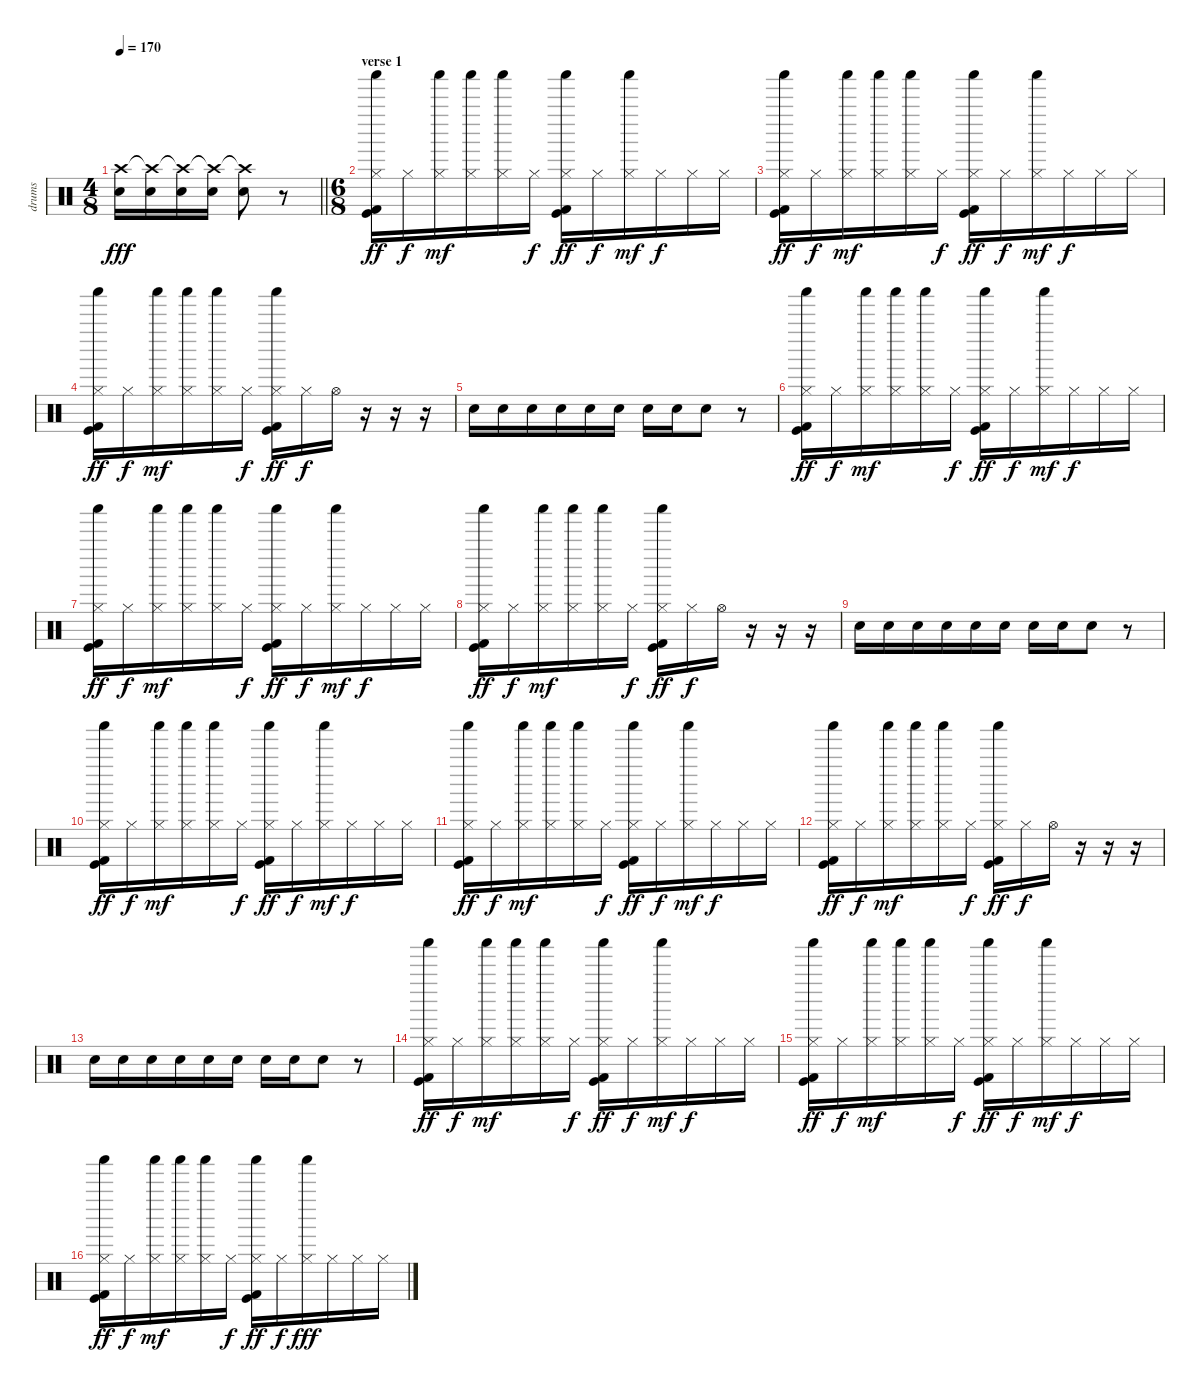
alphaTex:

\track ("drums " "drums ") {instrument percussion}
\staff {score}
\articulation defaults
\ts (4 8)
\tempo 170
\clef neutral
\barLineRight lightlight
\ks c
("Crash high (hit)" "Electric Snare (hit)").16{dy fff} ("Crash high (hit)"{t} "Electric Snare (hit)").16 ("Crash high (hit)"{t} "Electric Snare (hit)").16 ("Crash high (hit)"{t} "Electric Snare (hit)").16 ("Crash high (hit)"{t} "Electric Snare (hit)").8 r.8 |
\ts (6 8)
\section ("" "verse 1")
("Shaker (hit)" "Hi-Hat (closed)" "Kick (hit) 2" "Kick (hit)").16{dy ff} "Hi-Hat (closed)".16{dy f} ("Shaker (hit)" "Hi-Hat (closed)").16{dy mf} ("Shaker (hit)" "Hi-Hat (closed)").16 ("Shaker (hit)" "Hi-Hat (closed)").16 "Hi-Hat (closed)".16{dy f} ("Shaker (hit)" "Hi-Hat (closed)" "Kick (hit) 2" "Kick (hit)").16{dy ff} "Hi-Hat (closed)".16{dy f} ("Shaker (hit)" "Hi-Hat (closed)").16{dy mf} "Hi-Hat (closed)".16{dy f} "Hi-Hat (closed)".16 "Hi-Hat (closed)".16 |
("Shaker (hit)" "Hi-Hat (closed)" "Kick (hit) 2" "Kick (hit)").16{dy ff} "Hi-Hat (closed)".16{dy f} ("Shaker (hit)" "Hi-Hat (closed)").16{dy mf} ("Shaker (hit)" "Hi-Hat (closed)").16 ("Shaker (hit)" "Hi-Hat (closed)").16 "Hi-Hat (closed)".16{dy f} ("Shaker (hit)" "Hi-Hat (closed)" "Kick (hit) 2" "Kick (hit)").16{dy ff} "Hi-Hat (closed)".16{dy f} ("Shaker (hit)" "Hi-Hat (closed)").16{dy mf} "Hi-Hat (closed)".16{dy f} "Hi-Hat (closed)".16 "Hi-Hat (closed)".16 |
("Shaker (hit)" "Hi-Hat (closed)" "Kick (hit) 2" "Kick (hit)").16{dy ff} "Hi-Hat (closed)".16{dy f} ("Shaker (hit)" "Hi-Hat (closed)").16{dy mf} ("Shaker (hit)" "Hi-Hat (closed)").16 ("Shaker (hit)" "Hi-Hat (closed)").16 "Hi-Hat (closed)".16{dy f} ("Shaker (hit)" "Hi-Hat (closed)" "Kick (hit) 2" "Kick (hit)").16{dy ff} "Hi-Hat (closed)".16{dy f} "Hi-Hat (open)".16 r.16 r.16 r.16 |
"Electric Snare (hit)".16 "Electric Snare (hit)".16 "Electric Snare (hit)".16 "Electric Snare (hit)".16 "Electric Snare (hit)".16 "Electric Snare (hit)".16 "Electric Snare (hit)".16 "Electric Snare (hit)".16 "Electric Snare (hit)".8 r.8 |
("Shaker (hit)" "Hi-Hat (closed)" "Kick (hit) 2" "Kick (hit)").16{dy ff} "Hi-Hat (closed)".16{dy f} ("Shaker (hit)" "Hi-Hat (closed)").16{dy mf} ("Shaker (hit)" "Hi-Hat (closed)").16 ("Shaker (hit)" "Hi-Hat (closed)").16 "Hi-Hat (closed)".16{dy f} ("Shaker (hit)" "Hi-Hat (closed)" "Kick (hit) 2" "Kick (hit)").16{dy ff} "Hi-Hat (closed)".16{dy f} ("Shaker (hit)" "Hi-Hat (closed)").16{dy mf} "Hi-Hat (closed)".16{dy f} "Hi-Hat (closed)".16 "Hi-Hat (closed)".16 |
("Shaker (hit)" "Hi-Hat (closed)" "Kick (hit) 2" "Kick (hit)").16{dy ff} "Hi-Hat (closed)".16{dy f} ("Shaker (hit)" "Hi-Hat (closed)").16{dy mf} ("Shaker (hit)" "Hi-Hat (closed)").16 ("Shaker (hit)" "Hi-Hat (closed)").16 "Hi-Hat (closed)".16{dy f} ("Shaker (hit)" "Hi-Hat (closed)" "Kick (hit) 2" "Kick (hit)").16{dy ff} "Hi-Hat (closed)".16{dy f} ("Shaker (hit)" "Hi-Hat (closed)").16{dy mf} "Hi-Hat (closed)".16{dy f} "Hi-Hat (closed)".16 "Hi-Hat (closed)".16 |
("Shaker (hit)" "Hi-Hat (closed)" "Kick (hit) 2" "Kick (hit)").16{dy ff} "Hi-Hat (closed)".16{dy f} ("Shaker (hit)" "Hi-Hat (closed)").16{dy mf} ("Shaker (hit)" "Hi-Hat (closed)").16 ("Shaker (hit)" "Hi-Hat (closed)").16 "Hi-Hat (closed)".16{dy f} ("Shaker (hit)" "Hi-Hat (closed)" "Kick (hit) 2" "Kick (hit)").16{dy ff} "Hi-Hat (closed)".16{dy f} "Hi-Hat (open)".16 r.16 r.16 r.16 |
"Electric Snare (hit)".16 "Electric Snare (hit)".16 "Electric Snare (hit)".16 "Electric Snare (hit)".16 "Electric Snare (hit)".16 "Electric Snare (hit)".16 "Electric Snare (hit)".16 "Electric Snare (hit)".16 "Electric Snare (hit)".8 r.8 |
("Shaker (hit)" "Hi-Hat (closed)" "Kick (hit) 2" "Kick (hit)").16{dy ff} "Hi-Hat (closed)".16{dy f} ("Shaker (hit)" "Hi-Hat (closed)").16{dy mf} ("Shaker (hit)" "Hi-Hat (closed)").16 ("Shaker (hit)" "Hi-Hat (closed)").16 "Hi-Hat (closed)".16{dy f} ("Shaker (hit)" "Hi-Hat (closed)" "Kick (hit) 2" "Kick (hit)").16{dy ff} "Hi-Hat (closed)".16{dy f} ("Shaker (hit)" "Hi-Hat (closed)").16{dy mf} "Hi-Hat (closed)".16{dy f} "Hi-Hat (closed)".16 "Hi-Hat (closed)".16 |
("Shaker (hit)" "Hi-Hat (closed)" "Kick (hit) 2" "Kick (hit)").16{dy ff} "Hi-Hat (closed)".16{dy f} ("Shaker (hit)" "Hi-Hat (closed)").16{dy mf} ("Shaker (hit)" "Hi-Hat (closed)").16 ("Shaker (hit)" "Hi-Hat (closed)").16 "Hi-Hat (closed)".16{dy f} ("Shaker (hit)" "Hi-Hat (closed)" "Kick (hit) 2" "Kick (hit)").16{dy ff} "Hi-Hat (closed)".16{dy f} ("Shaker (hit)" "Hi-Hat (closed)").16{dy mf} "Hi-Hat (closed)".16{dy f} "Hi-Hat (closed)".16 "Hi-Hat (closed)".16 |
("Shaker (hit)" "Hi-Hat (closed)" "Kick (hit) 2" "Kick (hit)").16{dy ff} "Hi-Hat (closed)".16{dy f} ("Shaker (hit)" "Hi-Hat (closed)").16{dy mf} ("Shaker (hit)" "Hi-Hat (closed)").16 ("Shaker (hit)" "Hi-Hat (closed)").16 "Hi-Hat (closed)".16{dy f} ("Shaker (hit)" "Hi-Hat (closed)" "Kick (hit) 2" "Kick (hit)").16{dy ff} "Hi-Hat (closed)".16{dy f} "Hi-Hat (open)".16 r.16 r.16 r.16 |
"Electric Snare (hit)".16 "Electric Snare (hit)".16 "Electric Snare (hit)".16 "Electric Snare (hit)".16 "Electric Snare (hit)".16 "Electric Snare (hit)".16 "Electric Snare (hit)".16 "Electric Snare (hit)".16 "Electric Snare (hit)".8 r.8 |
("Shaker (hit)" "Hi-Hat (closed)" "Kick (hit) 2" "Kick (hit)").16{dy ff} "Hi-Hat (closed)".16{dy f} ("Shaker (hit)" "Hi-Hat (closed)").16{dy mf} ("Shaker (hit)" "Hi-Hat (closed)").16 ("Shaker (hit)" "Hi-Hat (closed)").16 "Hi-Hat (closed)".16{dy f} ("Shaker (hit)" "Hi-Hat (closed)" "Kick (hit) 2" "Kick (hit)").16{dy ff} "Hi-Hat (closed)".16{dy f} ("Shaker (hit)" "Hi-Hat (closed)").16{dy mf} "Hi-Hat (closed)".16{dy f} "Hi-Hat (closed)".16 "Hi-Hat (closed)".16 |
("Shaker (hit)" "Hi-Hat (closed)" "Kick (hit) 2" "Kick (hit)").16{dy ff} "Hi-Hat (closed)".16{dy f} ("Shaker (hit)" "Hi-Hat (closed)").16{dy mf} ("Shaker (hit)" "Hi-Hat (closed)").16 ("Shaker (hit)" "Hi-Hat (closed)").16 "Hi-Hat (closed)".16{dy f} ("Shaker (hit)" "Hi-Hat (closed)" "Kick (hit) 2" "Kick (hit)").16{dy ff} "Hi-Hat (closed)".16{dy f} ("Shaker (hit)" "Hi-Hat (closed)").16{dy mf} "Hi-Hat (closed)".16{dy f} "Hi-Hat (closed)".16 "Hi-Hat (closed)".16 |
("Shaker (hit)" "Hi-Hat (closed)" "Kick (hit) 2" "Kick (hit)").16{dy ff} "Hi-Hat (closed)".16{dy f} ("Shaker (hit)" "Hi-Hat (closed)").16{dy mf} ("Shaker (hit)" "Hi-Hat (closed)").16 ("Shaker (hit)" "Hi-Hat (closed)").16 "Hi-Hat (closed)".16{dy f} ("Shaker (hit)" "Hi-Hat (closed)" "Kick (hit) 2" "Kick (hit)").16{dy ff} "Hi-Hat (closed)".16{dy f} ("Shaker (hit)" "Hi-Hat (closed)").16{dy fff} "Hi-Hat (closed)".16 "Hi-Hat (closed)".16 "Hi-Hat (closed)".16
